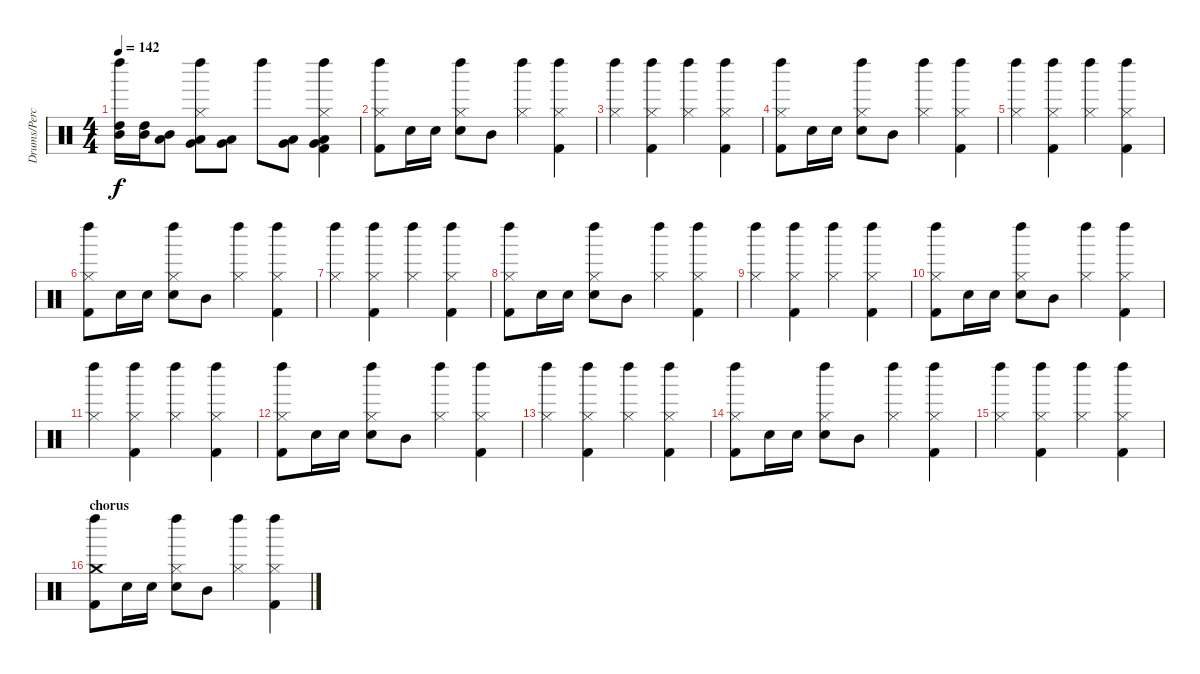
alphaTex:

\track ("Drums/Percussion (Bengerg)" "Drums/Perc") {instrument percussion}
\staff {score}
\articulation defaults
\ts (4 4)
\tempo 142
\clef neutral
\ks c
("High Tom (hit)" "Mid Tom (hit)" "Left Maraca (hit)").16{dy f} ("High Tom (hit)" "Mid Tom (hit)").16 ("Mid Tom (hit)" "Low Tom (hit)").8 ("Hi-Hat (closed)" "Low Tom (hit)" "Very Low Tom (hit)" "Left Maraca (hit)").8 ("Low Tom (hit)" "Very Low Tom (hit)").8 "Left Maraca (hit)".8 ("Low Tom (hit)" "Very Low Tom (hit)").8 ("Hi-Hat (closed)" "Very Low Tom (hit)" "Low Floor Tom (hit)" "Kick (hit) 2" "Left Maraca (hit)").4 |
("Hi-Hat (closed)" "Kick (hit) 2" "Left Maraca (hit)").8 "Electric Snare (hit)".16 "Electric Snare (hit)".16 ("Hi-Hat (closed)" "Electric Snare (hit)" "Left Maraca (hit)").8 "Mid Tom (hit)".8 ("Hi-Hat (closed)" "Left Maraca (hit)").4 ("Hi-Hat (closed)" "Kick (hit) 2" "Left Maraca (hit)").4 |
("Hi-Hat (closed)" "Left Maraca (hit)").4 ("Hi-Hat (closed)" "Kick (hit) 2" "Left Maraca (hit)").4 ("Hi-Hat (closed)" "Left Maraca (hit)").4 ("Hi-Hat (closed)" "Kick (hit) 2" "Left Maraca (hit)").4 |
("Hi-Hat (closed)" "Kick (hit) 2" "Left Maraca (hit)").8 "Electric Snare (hit)".16 "Electric Snare (hit)".16 ("Hi-Hat (closed)" "Electric Snare (hit)" "Left Maraca (hit)").8 "Mid Tom (hit)".8 ("Hi-Hat (closed)" "Left Maraca (hit)").4 ("Hi-Hat (closed)" "Kick (hit) 2" "Left Maraca (hit)").4 |
("Hi-Hat (closed)" "Left Maraca (hit)").4 ("Hi-Hat (closed)" "Kick (hit) 2" "Left Maraca (hit)").4 ("Hi-Hat (closed)" "Left Maraca (hit)").4 ("Hi-Hat (closed)" "Kick (hit) 2" "Left Maraca (hit)").4 |
("Hi-Hat (closed)" "Kick (hit) 2" "Left Maraca (hit)").8 "Electric Snare (hit)".16 "Electric Snare (hit)".16 ("Hi-Hat (closed)" "Electric Snare (hit)" "Left Maraca (hit)").8 "Mid Tom (hit)".8 ("Hi-Hat (closed)" "Left Maraca (hit)").4 ("Hi-Hat (closed)" "Kick (hit) 2" "Left Maraca (hit)").4 |
("Hi-Hat (closed)" "Left Maraca (hit)").4 ("Hi-Hat (closed)" "Kick (hit) 2" "Left Maraca (hit)").4 ("Hi-Hat (closed)" "Left Maraca (hit)").4 ("Hi-Hat (closed)" "Kick (hit) 2" "Left Maraca (hit)").4 |
("Hi-Hat (closed)" "Kick (hit) 2" "Left Maraca (hit)").8 "Electric Snare (hit)".16 "Electric Snare (hit)".16 ("Hi-Hat (closed)" "Electric Snare (hit)" "Left Maraca (hit)").8 "Mid Tom (hit)".8 ("Hi-Hat (closed)" "Left Maraca (hit)").4 ("Hi-Hat (closed)" "Kick (hit) 2" "Left Maraca (hit)").4 |
("Hi-Hat (closed)" "Left Maraca (hit)").4 ("Hi-Hat (closed)" "Kick (hit) 2" "Left Maraca (hit)").4 ("Hi-Hat (closed)" "Left Maraca (hit)").4 ("Hi-Hat (closed)" "Kick (hit) 2" "Left Maraca (hit)").4 |
("Hi-Hat (closed)" "Kick (hit) 2" "Left Maraca (hit)").8 "Electric Snare (hit)".16 "Electric Snare (hit)".16 ("Hi-Hat (closed)" "Electric Snare (hit)" "Left Maraca (hit)").8 "Mid Tom (hit)".8 ("Hi-Hat (closed)" "Left Maraca (hit)").4 ("Hi-Hat (closed)" "Kick (hit) 2" "Left Maraca (hit)").4 |
("Hi-Hat (closed)" "Left Maraca (hit)").4 ("Hi-Hat (closed)" "Kick (hit) 2" "Left Maraca (hit)").4 ("Hi-Hat (closed)" "Left Maraca (hit)").4 ("Hi-Hat (closed)" "Kick (hit) 2" "Left Maraca (hit)").4 |
("Hi-Hat (closed)" "Kick (hit) 2" "Left Maraca (hit)").8 "Electric Snare (hit)".16 "Electric Snare (hit)".16 ("Hi-Hat (closed)" "Electric Snare (hit)" "Left Maraca (hit)").8 "Mid Tom (hit)".8 ("Hi-Hat (closed)" "Left Maraca (hit)").4 ("Hi-Hat (closed)" "Kick (hit) 2" "Left Maraca (hit)").4 |
("Hi-Hat (closed)" "Left Maraca (hit)").4 ("Hi-Hat (closed)" "Kick (hit) 2" "Left Maraca (hit)").4 ("Hi-Hat (closed)" "Left Maraca (hit)").4 ("Hi-Hat (closed)" "Kick (hit) 2" "Left Maraca (hit)").4 |
("Hi-Hat (closed)" "Kick (hit) 2" "Left Maraca (hit)").8 "Electric Snare (hit)".16 "Electric Snare (hit)".16 ("Hi-Hat (closed)" "Electric Snare (hit)" "Left Maraca (hit)").8 "Mid Tom (hit)".8 ("Hi-Hat (closed)" "Left Maraca (hit)").4 ("Hi-Hat (closed)" "Kick (hit) 2" "Left Maraca (hit)").4 |
("Hi-Hat (closed)" "Left Maraca (hit)").4 ("Hi-Hat (closed)" "Kick (hit) 2" "Left Maraca (hit)").4 ("Hi-Hat (closed)" "Left Maraca (hit)").4 ("Hi-Hat (closed)" "Kick (hit) 2" "Left Maraca (hit)").4 |
\section ("" "chorus")
("Crash medium (hit)" "Kick (hit) 2" "Left Maraca (hit)").8 "Electric Snare (hit)".16 "Electric Snare (hit)".16 ("Hi-Hat (closed)" "Electric Snare (hit)" "Left Maraca (hit)").8 "Mid Tom (hit)".8 ("Hi-Hat (closed)" "Left Maraca (hit)").4 ("Hi-Hat (closed)" "Kick (hit) 2" "Left Maraca (hit)").4
